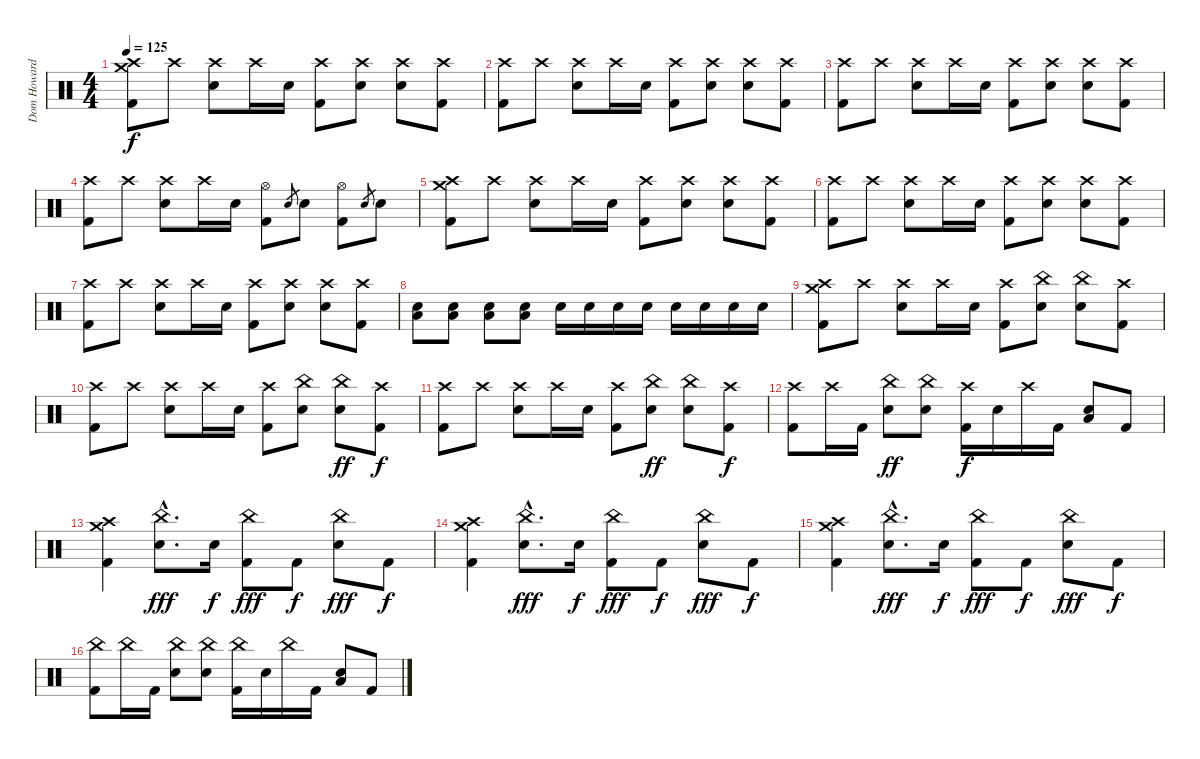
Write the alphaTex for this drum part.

\track ("Dom Howard" "Dom Howard") {instrument percussion}
\staff {score}
\articulation defaults
\ts (4 4)
\tempo 125
\clef neutral
\ks c
("Crash medium (hit)" "Crash high (hit)" "Kick (hit) 2").8{dy f} "Crash high (hit)".8 ("Crash high (hit)" "Electric Snare (hit)").8 "Crash high (hit)".16 "Electric Snare (hit)".16 ("Crash high (hit)" "Kick (hit) 2").8 ("Crash high (hit)" "Electric Snare (hit)").8 ("Crash high (hit)" "Electric Snare (hit)").8 ("Crash high (hit)" "Kick (hit) 2").8 |
("Crash high (hit)" "Kick (hit) 2").8 "Crash high (hit)".8 ("Crash high (hit)" "Electric Snare (hit)").8 "Crash high (hit)".16 "Electric Snare (hit)".16 ("Crash high (hit)" "Kick (hit) 2").8 ("Crash high (hit)" "Electric Snare (hit)").8 ("Crash high (hit)" "Electric Snare (hit)").8 ("Crash high (hit)" "Kick (hit) 2").8 |
("Crash high (hit)" "Kick (hit) 2").8 "Crash high (hit)".8 ("Crash high (hit)" "Electric Snare (hit)").8 "Crash high (hit)".16 "Electric Snare (hit)".16 ("Crash high (hit)" "Kick (hit) 2").8 ("Crash high (hit)" "Electric Snare (hit)").8 ("Crash high (hit)" "Electric Snare (hit)").8 ("Crash high (hit)" "Kick (hit) 2").8 |
("Crash high (hit)" "Kick (hit) 2").8 "Crash high (hit)".8 ("Crash high (hit)" "Electric Snare (hit)").8 "Crash high (hit)".16 "Electric Snare (hit)".16 ("Hi-Hat (open)" "Kick (hit) 2").8 "Electric Snare (hit)".8{gr} "Electric Snare (hit)".8 ("Hi-Hat (open)" "Kick (hit) 2").8 "Electric Snare (hit)".8{gr} "Electric Snare (hit)".8 |
("Crash medium (hit)" "Crash high (hit)" "Kick (hit) 2").8 "Crash high (hit)".8 ("Crash high (hit)" "Electric Snare (hit)").8 "Crash high (hit)".16 "Electric Snare (hit)".16 ("Crash high (hit)" "Kick (hit) 2").8 ("Crash high (hit)" "Electric Snare (hit)").8 ("Crash high (hit)" "Electric Snare (hit)").8 ("Crash high (hit)" "Kick (hit) 2").8 |
("Crash high (hit)" "Kick (hit) 2").8 "Crash high (hit)".8 ("Crash high (hit)" "Electric Snare (hit)").8 "Crash high (hit)".16 "Electric Snare (hit)".16 ("Crash high (hit)" "Kick (hit) 2").8 ("Crash high (hit)" "Electric Snare (hit)").8 ("Crash high (hit)" "Electric Snare (hit)").8 ("Crash high (hit)" "Kick (hit) 2").8 |
("Crash high (hit)" "Kick (hit) 2").8 "Crash high (hit)".8 ("Crash high (hit)" "Electric Snare (hit)").8 "Crash high (hit)".16 "Electric Snare (hit)".16 ("Crash high (hit)" "Kick (hit) 2").8 ("Crash high (hit)" "Electric Snare (hit)").8 ("Crash high (hit)" "Electric Snare (hit)").8 ("Crash high (hit)" "Kick (hit) 2").8 |
("Electric Snare (hit)" "Low Floor Tom (hit)").8 ("Electric Snare (hit)" "Low Floor Tom (hit)").8 ("Electric Snare (hit)" "Low Floor Tom (hit)").8 ("Electric Snare (hit)" "Low Floor Tom (hit)").8 "Electric Snare (hit)".16 "Electric Snare (hit)".16 "Electric Snare (hit)".16 "Electric Snare (hit)".16 "Electric Snare (hit)".16 "Electric Snare (hit)".16 "Electric Snare (hit)".16 "Electric Snare (hit)".16 |
("Crash medium (hit)" "Crash high (hit)" "Kick (hit) 2").8 "Crash high (hit)".8 ("Crash high (hit)" "Electric Snare (hit)").8 "Crash high (hit)".16 "Electric Snare (hit)".16 ("Crash high (hit)" "Kick (hit) 2").8 ("China (hit)" "Electric Snare (hit)").8 ("China (hit)" "Electric Snare (hit)").8 ("Crash high (hit)" "Kick (hit) 2").8 |
("Crash high (hit)" "Kick (hit) 2").8 "Crash high (hit)".8 ("Crash high (hit)" "Electric Snare (hit)").8 "Crash high (hit)".16 "Electric Snare (hit)".16 ("Crash high (hit)" "Kick (hit) 2").8 ("China (hit)" "Electric Snare (hit)").8 ("China (hit)" "Electric Snare (hit)").8{dy ff} ("Crash high (hit)" "Kick (hit) 2").8{dy f} |
("Crash high (hit)" "Kick (hit) 2").8 "Crash high (hit)".8 ("Crash high (hit)" "Electric Snare (hit)").8 "Crash high (hit)".16 "Electric Snare (hit)".16 ("Crash high (hit)" "Kick (hit) 2").8 ("China (hit)" "Electric Snare (hit)").8{dy ff} ("China (hit)" "Electric Snare (hit)").8 ("Crash high (hit)" "Kick (hit) 2").8{dy f} |
("Crash high (hit)" "Kick (hit) 2").8 "Crash high (hit)".16 "Kick (hit) 2".16 ("China (hit)" "Electric Snare (hit)").8{dy ff} ("China (hit)" "Electric Snare (hit)").8 ("Crash high (hit)" "Kick (hit) 2").16{dy f} "Electric Snare (hit)".16 "Crash high (hit)".16 "Kick (hit) 2".16 ("Low Floor Tom (hit)" "Electric Snare (hit)").8 "Kick (hit) 2".8 |
("Crash medium (hit)" "Crash high (hit)" "Kick (hit) 2").4 ("China (hit)"{hac} "Electric Snare (hit)"{hac}).8{d dy fff} "Electric Snare (hit)".16{dy f} ("China (hit)" "Kick (hit) 2").8{dy fff} "Kick (hit) 2".8{dy f} ("China (hit)" "Electric Snare (hit)").8{dy fff} "Kick (hit) 2".8{dy f} |
("Crash medium (hit)" "Crash high (hit)" "Kick (hit) 2").4 ("China (hit)"{hac} "Electric Snare (hit)"{hac}).8{d dy fff} "Electric Snare (hit)".16{dy f} ("China (hit)" "Kick (hit) 2").8{dy fff} "Kick (hit) 2".8{dy f} ("China (hit)" "Electric Snare (hit)").8{dy fff} "Kick (hit) 2".8{dy f} |
("Crash medium (hit)" "Crash high (hit)" "Kick (hit) 2").4 ("China (hit)"{hac} "Electric Snare (hit)"{hac}).8{d dy fff} "Electric Snare (hit)".16{dy f} ("China (hit)" "Kick (hit) 2").8{dy fff} "Kick (hit) 2".8{dy f} ("China (hit)" "Electric Snare (hit)").8{dy fff} "Kick (hit) 2".8{dy f} |
("China (hit)" "Kick (hit) 2").8 "China (hit)".16 "Kick (hit) 2".16 ("China (hit)" "Electric Snare (hit)").8 ("China (hit)" "Electric Snare (hit)").8 ("China (hit)" "Kick (hit) 2").16 "Electric Snare (hit)".16 "China (hit)".16 "Kick (hit) 2".16 ("Low Floor Tom (hit)" "Electric Snare (hit)").8 "Kick (hit) 2".8
